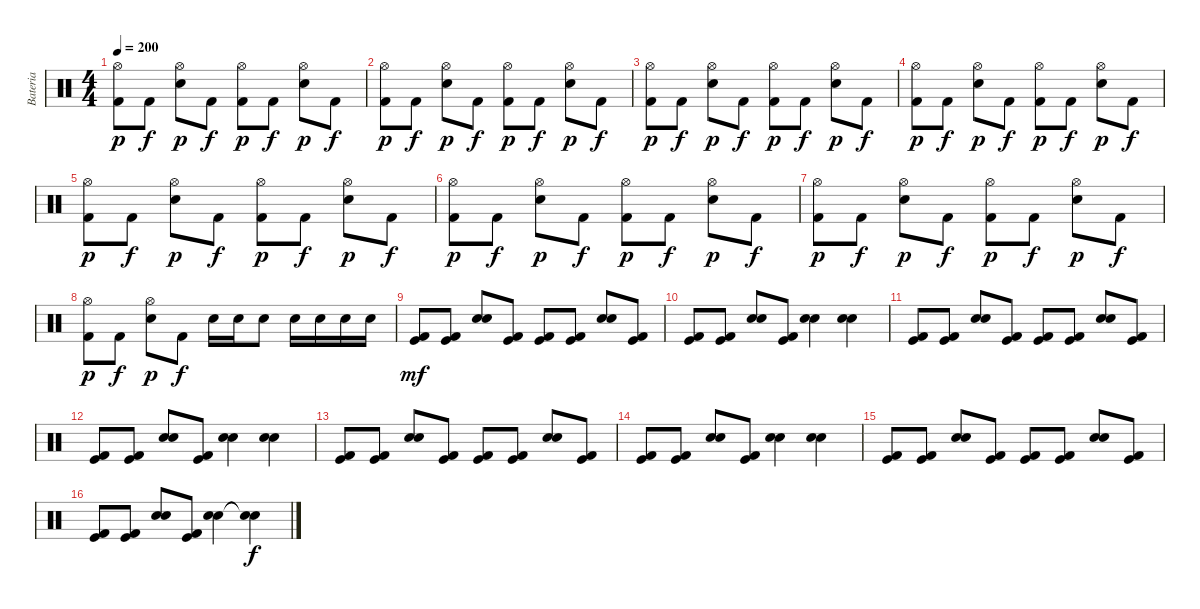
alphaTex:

\track ("Bateria" "Bateria") {instrument percussion}
\staff {score}
\articulation defaults
\ts (4 4)
\tempo 200
\clef neutral
\ks c
("Kick (hit) 2" "Hi-Hat (open)").8{dy p} "Kick (hit) 2".8{dy f} ("Electric Snare (hit)" "Hi-Hat (open)").8{dy p} "Kick (hit) 2".8{dy f} ("Kick (hit) 2" "Hi-Hat (open)").8{dy p} "Kick (hit) 2".8{dy f} ("Electric Snare (hit)" "Hi-Hat (open)").8{dy p} "Kick (hit) 2".8{dy f} |
("Kick (hit) 2" "Hi-Hat (open)").8{dy p} "Kick (hit) 2".8{dy f} ("Electric Snare (hit)" "Hi-Hat (open)").8{dy p} "Kick (hit) 2".8{dy f} ("Kick (hit) 2" "Hi-Hat (open)").8{dy p} "Kick (hit) 2".8{dy f} ("Electric Snare (hit)" "Hi-Hat (open)").8{dy p} "Kick (hit) 2".8{dy f} |
("Kick (hit) 2" "Hi-Hat (open)").8{dy p} "Kick (hit) 2".8{dy f} ("Electric Snare (hit)" "Hi-Hat (open)").8{dy p} "Kick (hit) 2".8{dy f} ("Kick (hit) 2" "Hi-Hat (open)").8{dy p} "Kick (hit) 2".8{dy f} ("Electric Snare (hit)" "Hi-Hat (open)").8{dy p} "Kick (hit) 2".8{dy f} |
("Kick (hit) 2" "Hi-Hat (open)").8{dy p} "Kick (hit) 2".8{dy f} ("Electric Snare (hit)" "Hi-Hat (open)").8{dy p} "Kick (hit) 2".8{dy f} ("Kick (hit) 2" "Hi-Hat (open)").8{dy p} "Kick (hit) 2".8{dy f} ("Electric Snare (hit)" "Hi-Hat (open)").8{dy p} "Kick (hit) 2".8{dy f} |
("Kick (hit) 2" "Hi-Hat (open)").8{dy p} "Kick (hit) 2".8{dy f} ("Electric Snare (hit)" "Hi-Hat (open)").8{dy p} "Kick (hit) 2".8{dy f} ("Kick (hit) 2" "Hi-Hat (open)").8{dy p} "Kick (hit) 2".8{dy f} ("Electric Snare (hit)" "Hi-Hat (open)").8{dy p} "Kick (hit) 2".8{dy f} |
("Kick (hit) 2" "Hi-Hat (open)").8{dy p} "Kick (hit) 2".8{dy f} ("Electric Snare (hit)" "Hi-Hat (open)").8{dy p} "Kick (hit) 2".8{dy f} ("Kick (hit) 2" "Hi-Hat (open)").8{dy p} "Kick (hit) 2".8{dy f} ("Electric Snare (hit)" "Hi-Hat (open)").8{dy p} "Kick (hit) 2".8{dy f} |
("Kick (hit) 2" "Hi-Hat (open)").8{dy p} "Kick (hit) 2".8{dy f} ("Electric Snare (hit)" "Hi-Hat (open)").8{dy p} "Kick (hit) 2".8{dy f} ("Kick (hit) 2" "Hi-Hat (open)").8{dy p} "Kick (hit) 2".8{dy f} ("Electric Snare (hit)" "Hi-Hat (open)").8{dy p} "Kick (hit) 2".8{dy f} |
("Kick (hit) 2" "Hi-Hat (open)").8{dy p} "Kick (hit) 2".8{dy f} ("Electric Snare (hit)" "Hi-Hat (open)").8{dy p} "Kick (hit) 2".8{dy f} "Electric Snare (hit)".16 "Electric Snare (hit)".16 "Electric Snare (hit)".8 "Electric Snare (hit)".16 "Electric Snare (hit)".16 "Electric Snare (hit)".16 "Electric Snare (hit)".16 |
("Kick (hit)" "Kick (hit) 2").8{dy mf} ("Kick (hit)" "Kick (hit) 2").8 ("Electric Snare (hit)" "Snare (hit) 2").8 ("Kick (hit)" "Kick (hit) 2").8 ("Kick (hit)" "Kick (hit) 2").8 ("Kick (hit)" "Kick (hit) 2").8 ("Electric Snare (hit)" "Snare (hit) 2").8 ("Kick (hit)" "Kick (hit) 2").8 |
("Kick (hit)" "Kick (hit) 2").8 ("Kick (hit)" "Kick (hit) 2").8 ("Electric Snare (hit)" "Snare (hit) 2").8 ("Kick (hit)" "Kick (hit) 2").8 ("Electric Snare (hit)" "Snare (hit) 2").4 ("Electric Snare (hit)" "Snare (hit) 2").4 |
("Kick (hit)" "Kick (hit) 2").8 ("Kick (hit)" "Kick (hit) 2").8 ("Electric Snare (hit)" "Snare (hit) 2").8 ("Kick (hit)" "Kick (hit) 2").8 ("Kick (hit)" "Kick (hit) 2").8 ("Kick (hit)" "Kick (hit) 2").8 ("Electric Snare (hit)" "Snare (hit) 2").8 ("Kick (hit)" "Kick (hit) 2").8 |
("Kick (hit)" "Kick (hit) 2").8 ("Kick (hit)" "Kick (hit) 2").8 ("Electric Snare (hit)" "Snare (hit) 2").8 ("Kick (hit)" "Kick (hit) 2").8 ("Electric Snare (hit)" "Snare (hit) 2").4 ("Electric Snare (hit)" "Snare (hit) 2").4 |
("Kick (hit)" "Kick (hit) 2").8 ("Kick (hit)" "Kick (hit) 2").8 ("Electric Snare (hit)" "Snare (hit) 2").8 ("Kick (hit)" "Kick (hit) 2").8 ("Kick (hit)" "Kick (hit) 2").8 ("Kick (hit)" "Kick (hit) 2").8 ("Electric Snare (hit)" "Snare (hit) 2").8 ("Kick (hit)" "Kick (hit) 2").8 |
("Kick (hit)" "Kick (hit) 2").8 ("Kick (hit)" "Kick (hit) 2").8 ("Electric Snare (hit)" "Snare (hit) 2").8 ("Kick (hit)" "Kick (hit) 2").8 ("Electric Snare (hit)" "Snare (hit) 2").4 ("Electric Snare (hit)" "Snare (hit) 2").4 |
("Kick (hit)" "Kick (hit) 2").8 ("Kick (hit)" "Kick (hit) 2").8 ("Electric Snare (hit)" "Snare (hit) 2").8 ("Kick (hit)" "Kick (hit) 2").8 ("Kick (hit)" "Kick (hit) 2").8 ("Kick (hit)" "Kick (hit) 2").8 ("Electric Snare (hit)" "Snare (hit) 2").8 ("Kick (hit)" "Kick (hit) 2").8 |
("Kick (hit)" "Kick (hit) 2").8 ("Kick (hit)" "Kick (hit) 2").8 ("Electric Snare (hit)" "Snare (hit) 2").8 ("Kick (hit)" "Kick (hit) 2").8 ("Electric Snare (hit)" "Snare (hit) 2").4 ("Electric Snare (hit)"{t} "Snare (hit) 2"{t}).4{dy f}
